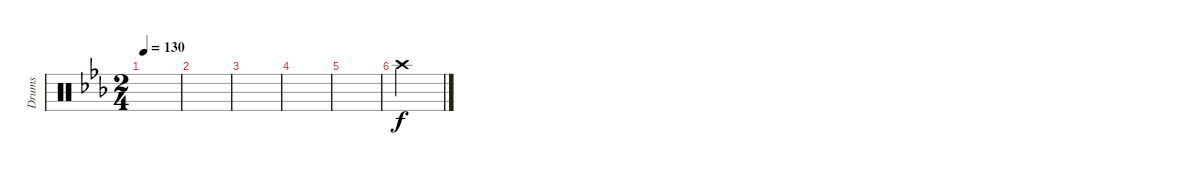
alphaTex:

\track ("Drums" "Drums") {instrument percussion}
\staff {score}
\articulation defaults
\ts (2 4)
\tempo 130
\clef neutral
\ks cminor
|
|
|
|
|
"Crash high (hit)".2
